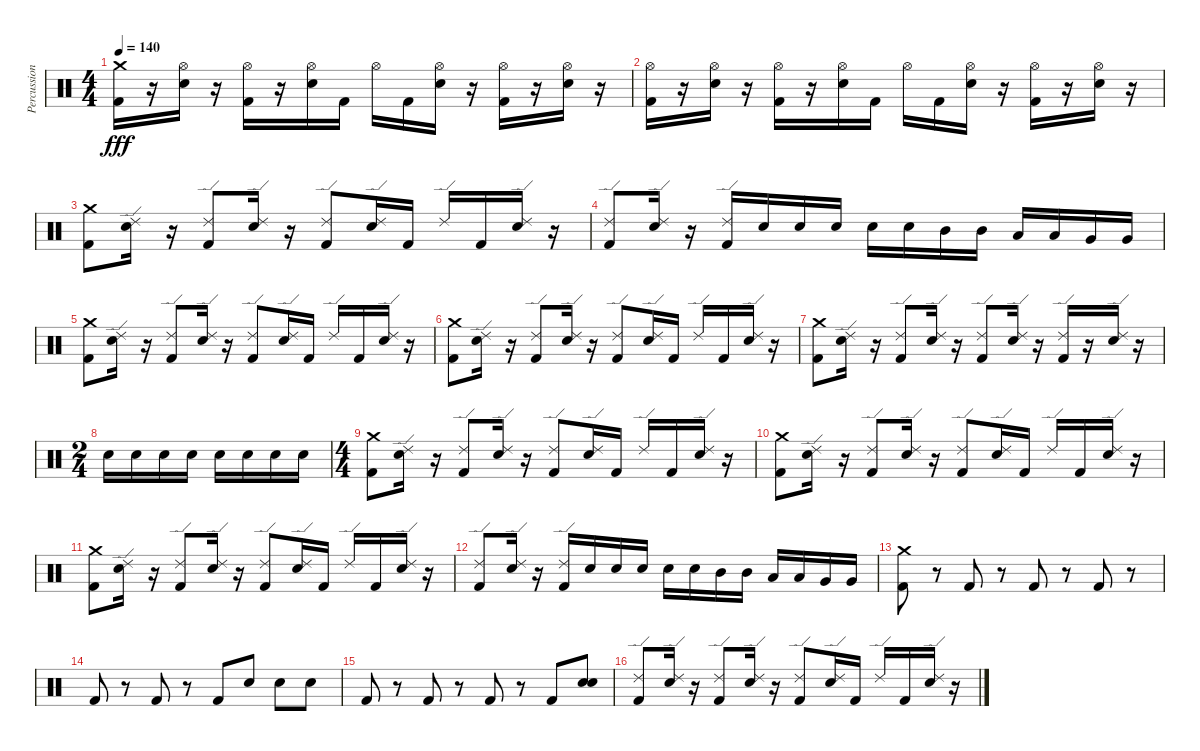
\track ("Percussion" "Percussion") {instrument percussion}
\staff {score}
\articulation defaults
\ts (4 4)
\tempo 140
\clef neutral
\ks c
("Kick (hit) 2" "Crash medium (hit)").16{dy fff} r.16 ("Hi-Hat (open)" "Snare (hit) 2").16 r.16 ("Hi-Hat (open)" "Kick (hit) 2").16 r.16 ("Hi-Hat (open)" "Snare (hit) 2").16 "Kick (hit) 2".16 "Hi-Hat (open)".16 "Kick (hit) 2".16 ("Hi-Hat (open)" "Snare (hit) 2").16 r.16 ("Hi-Hat (open)" "Kick (hit) 2").16 r.16 ("Hi-Hat (open)" "Snare (hit) 2").16 r.16 |
("Hi-Hat (open)" "Kick (hit) 2").16 r.16 ("Hi-Hat (open)" "Snare (hit) 2").16 r.16 ("Hi-Hat (open)" "Kick (hit) 2").16 r.16 ("Hi-Hat (open)" "Snare (hit) 2").16 "Kick (hit) 2".16 "Hi-Hat (open)".16 "Kick (hit) 2".16 ("Hi-Hat (open)" "Snare (hit) 2").16 r.16 ("Hi-Hat (open)" "Kick (hit) 2").16 r.16 ("Hi-Hat (open)" "Snare (hit) 2").16 r.16 |
("Kick (hit) 2" "Crash medium (hit)").8 ("Snare (hit) 2" "Ride (edge) 2").16 r.16 ("Kick (hit) 2" "Ride (edge) 2").8 ("Snare (hit) 2" "Ride (edge) 2").16 r.16 ("Kick (hit) 2" "Ride (edge) 2").8 ("Snare (hit) 2" "Ride (edge) 2").16 "Kick (hit) 2".16 "Ride (edge) 2".16 "Kick (hit) 2".16 ("Snare (hit) 2" "Ride (edge) 2").16 r.16 |
("Kick (hit) 2" "Ride (edge) 2").8 ("Snare (hit) 2" "Ride (edge) 2").16 r.16 ("Kick (hit) 2" "Ride (edge) 2").16 "Snare (hit) 2".16 "Snare (hit) 2".16 "Snare (hit) 2".16 "Snare (hit) 2".16 "Snare (hit) 2".16 "Mid Tom (hit)".16 "Mid Tom (hit)".16 "Low Tom (hit)".16 "Low Tom (hit)".16 "Very Low Tom (hit)".16 "Very Low Tom (hit)".16 |
("Kick (hit) 2" "Crash medium (hit)").8 ("Snare (hit) 2" "Ride (edge) 2").16 r.16 ("Kick (hit) 2" "Ride (edge) 2").8 ("Snare (hit) 2" "Ride (edge) 2").16 r.16 ("Kick (hit) 2" "Ride (edge) 2").8 ("Snare (hit) 2" "Ride (edge) 2").16 "Kick (hit) 2".16 "Ride (edge) 2".16 "Kick (hit) 2".16 ("Snare (hit) 2" "Ride (edge) 2").16 r.16 |
("Kick (hit) 2" "Crash medium (hit)").8 ("Snare (hit) 2" "Ride (edge) 2").16 r.16 ("Kick (hit) 2" "Ride (edge) 2").8 ("Snare (hit) 2" "Ride (edge) 2").16 r.16 ("Kick (hit) 2" "Ride (edge) 2").8 ("Snare (hit) 2" "Ride (edge) 2").16 "Kick (hit) 2".16 "Ride (edge) 2".16 "Kick (hit) 2".16 ("Snare (hit) 2" "Ride (edge) 2").16 r.16 |
("Kick (hit) 2" "Crash medium (hit)").8 ("Snare (hit) 2" "Ride (edge) 2").16 r.16 ("Kick (hit) 2" "Ride (edge) 2").8 ("Snare (hit) 2" "Ride (edge) 2").16 r.16 ("Kick (hit) 2" "Ride (edge) 2").8 ("Snare (hit) 2" "Ride (edge) 2").16 r.16 ("Ride (edge) 2" "Kick (hit) 2").16 r.16 ("Snare (hit) 2" "Ride (edge) 2").16 r.16 |
\ts (2 4)
"Snare (hit) 2".16 "Snare (hit) 2".16 "Snare (hit) 2".16 "Snare (hit) 2".16 "Snare (hit) 2".16 "Snare (hit) 2".16 "Snare (hit) 2".16 "Snare (hit) 2".16 |
\ts (4 4)
("Kick (hit) 2" "Crash medium (hit)").8 ("Snare (hit) 2" "Ride (edge) 2").16 r.16 ("Kick (hit) 2" "Ride (edge) 2").8 ("Snare (hit) 2" "Ride (edge) 2").16 r.16 ("Kick (hit) 2" "Ride (edge) 2").8 ("Snare (hit) 2" "Ride (edge) 2").16 "Kick (hit) 2".16 "Ride (edge) 2".16 "Kick (hit) 2".16 ("Snare (hit) 2" "Ride (edge) 2").16 r.16 |
("Kick (hit) 2" "Crash medium (hit)").8 ("Snare (hit) 2" "Ride (edge) 2").16 r.16 ("Kick (hit) 2" "Ride (edge) 2").8 ("Snare (hit) 2" "Ride (edge) 2").16 r.16 ("Kick (hit) 2" "Ride (edge) 2").8 ("Snare (hit) 2" "Ride (edge) 2").16 "Kick (hit) 2".16 "Ride (edge) 2".16 "Kick (hit) 2".16 ("Snare (hit) 2" "Ride (edge) 2").16 r.16 |
("Kick (hit) 2" "Crash medium (hit)").8 ("Snare (hit) 2" "Ride (edge) 2").16 r.16 ("Kick (hit) 2" "Ride (edge) 2").8 ("Snare (hit) 2" "Ride (edge) 2").16 r.16 ("Kick (hit) 2" "Ride (edge) 2").8 ("Snare (hit) 2" "Ride (edge) 2").16 "Kick (hit) 2".16 "Ride (edge) 2".16 "Kick (hit) 2".16 ("Snare (hit) 2" "Ride (edge) 2").16 r.16 |
("Kick (hit) 2" "Ride (edge) 2").8 ("Snare (hit) 2" "Ride (edge) 2").16 r.16 ("Kick (hit) 2" "Ride (edge) 2").16 "Snare (hit) 2".16 "Snare (hit) 2".16 "Snare (hit) 2".16 "Snare (hit) 2".16 "Snare (hit) 2".16 "Mid Tom (hit)".16 "Mid Tom (hit)".16 "Low Tom (hit)".16 "Low Tom (hit)".16 "Very Low Tom (hit)".16 "Very Low Tom (hit)".16 |
("Kick (hit) 2" "Crash medium (hit)").8 r.8 "Kick (hit) 2".8 r.8 "Kick (hit) 2".8 r.8 "Kick (hit) 2".8 r.8 |
"Kick (hit) 2".8 r.8 "Kick (hit) 2".8 r.8 "Kick (hit) 2".8 "Snare (hit) 2".8 "Snare (hit) 2".8 "Snare (hit) 2".8 |
"Kick (hit) 2".8 r.8 "Kick (hit) 2".8 r.8 "Kick (hit) 2".8 r.8 "Kick (hit) 2".8 ("Snare (hit) 2" "Snare (hit) 2").8 |
("Kick (hit) 2" "Ride (edge) 2").8 ("Snare (hit) 2" "Ride (edge) 2").16 r.16 ("Kick (hit) 2" "Ride (edge) 2").8 ("Snare (hit) 2" "Ride (edge) 2").16 r.16 ("Kick (hit) 2" "Ride (edge) 2").8 ("Snare (hit) 2" "Ride (edge) 2").16 "Kick (hit) 2".16 "Ride (edge) 2".16 "Kick (hit) 2".16 ("Snare (hit) 2" "Ride (edge) 2").16 r.16
